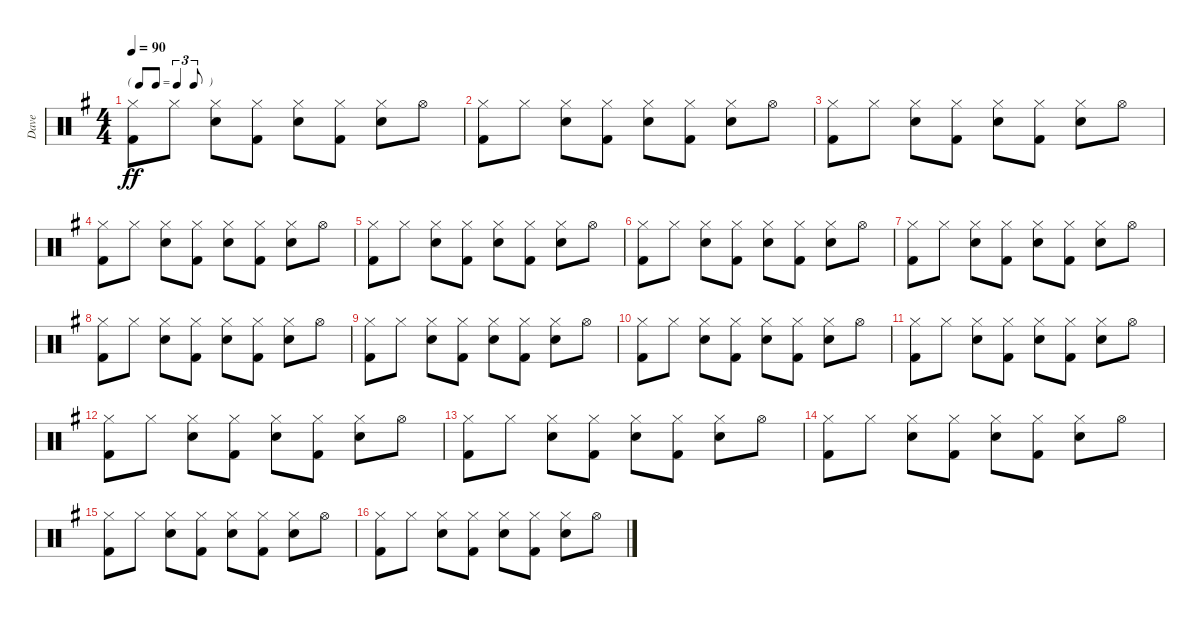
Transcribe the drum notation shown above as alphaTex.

\track ("Dave" "Dave") {instrument percussion}
\staff {score}
\articulation defaults
\ts (4 4)
\tf triplet8th
\tempo 90
\clef neutral
\ks g
("Hi-Hat (closed)" "Kick (hit) 2").8{dy ff} "Hi-Hat (closed)".8 ("Hi-Hat (closed)" "Snare (hit) 2").8 ("Hi-Hat (closed)" "Kick (hit) 2").8 ("Hi-Hat (closed)" "Snare (hit) 2").8 ("Hi-Hat (closed)" "Kick (hit) 2").8 ("Hi-Hat (closed)" "Snare (hit) 2").8 "Hi-Hat (open)".8 |
("Hi-Hat (closed)" "Kick (hit) 2").8 "Hi-Hat (closed)".8 ("Hi-Hat (closed)" "Snare (hit) 2").8 ("Hi-Hat (closed)" "Kick (hit) 2").8 ("Hi-Hat (closed)" "Snare (hit) 2").8 ("Hi-Hat (closed)" "Kick (hit) 2").8 ("Hi-Hat (closed)" "Snare (hit) 2").8 "Hi-Hat (open)".8 |
("Hi-Hat (closed)" "Kick (hit) 2").8 "Hi-Hat (closed)".8 ("Hi-Hat (closed)" "Snare (hit) 2").8 ("Hi-Hat (closed)" "Kick (hit) 2").8 ("Hi-Hat (closed)" "Snare (hit) 2").8 ("Hi-Hat (closed)" "Kick (hit) 2").8 ("Hi-Hat (closed)" "Snare (hit) 2").8 "Hi-Hat (open)".8 |
("Hi-Hat (closed)" "Kick (hit) 2").8 "Hi-Hat (closed)".8 ("Hi-Hat (closed)" "Snare (hit) 2").8 ("Hi-Hat (closed)" "Kick (hit) 2").8 ("Hi-Hat (closed)" "Snare (hit) 2").8 ("Hi-Hat (closed)" "Kick (hit) 2").8 ("Hi-Hat (closed)" "Snare (hit) 2").8 "Hi-Hat (open)".8 |
("Hi-Hat (closed)" "Kick (hit) 2").8 "Hi-Hat (closed)".8 ("Hi-Hat (closed)" "Snare (hit) 2").8 ("Hi-Hat (closed)" "Kick (hit) 2").8 ("Hi-Hat (closed)" "Snare (hit) 2").8 ("Hi-Hat (closed)" "Kick (hit) 2").8 ("Hi-Hat (closed)" "Snare (hit) 2").8 "Hi-Hat (open)".8 |
("Hi-Hat (closed)" "Kick (hit) 2").8 "Hi-Hat (closed)".8 ("Hi-Hat (closed)" "Snare (hit) 2").8 ("Hi-Hat (closed)" "Kick (hit) 2").8 ("Hi-Hat (closed)" "Snare (hit) 2").8 ("Hi-Hat (closed)" "Kick (hit) 2").8 ("Hi-Hat (closed)" "Snare (hit) 2").8 "Hi-Hat (open)".8 |
("Hi-Hat (closed)" "Kick (hit) 2").8 "Hi-Hat (closed)".8 ("Hi-Hat (closed)" "Snare (hit) 2").8 ("Hi-Hat (closed)" "Kick (hit) 2").8 ("Hi-Hat (closed)" "Snare (hit) 2").8 ("Hi-Hat (closed)" "Kick (hit) 2").8 ("Hi-Hat (closed)" "Snare (hit) 2").8 "Hi-Hat (open)".8 |
("Hi-Hat (closed)" "Kick (hit) 2").8 "Hi-Hat (closed)".8 ("Hi-Hat (closed)" "Snare (hit) 2").8 ("Hi-Hat (closed)" "Kick (hit) 2").8 ("Hi-Hat (closed)" "Snare (hit) 2").8 ("Hi-Hat (closed)" "Kick (hit) 2").8 ("Hi-Hat (closed)" "Snare (hit) 2").8 "Hi-Hat (open)".8 |
("Hi-Hat (closed)" "Kick (hit) 2").8 "Hi-Hat (closed)".8 ("Hi-Hat (closed)" "Snare (hit) 2").8 ("Hi-Hat (closed)" "Kick (hit) 2").8 ("Hi-Hat (closed)" "Snare (hit) 2").8 ("Hi-Hat (closed)" "Kick (hit) 2").8 ("Hi-Hat (closed)" "Snare (hit) 2").8 "Hi-Hat (open)".8 |
("Hi-Hat (closed)" "Kick (hit) 2").8 "Hi-Hat (closed)".8 ("Hi-Hat (closed)" "Snare (hit) 2").8 ("Hi-Hat (closed)" "Kick (hit) 2").8 ("Hi-Hat (closed)" "Snare (hit) 2").8 ("Hi-Hat (closed)" "Kick (hit) 2").8 ("Hi-Hat (closed)" "Snare (hit) 2").8 "Hi-Hat (open)".8 |
("Hi-Hat (closed)" "Kick (hit) 2").8 "Hi-Hat (closed)".8 ("Hi-Hat (closed)" "Snare (hit) 2").8 ("Hi-Hat (closed)" "Kick (hit) 2").8 ("Hi-Hat (closed)" "Snare (hit) 2").8 ("Hi-Hat (closed)" "Kick (hit) 2").8 ("Hi-Hat (closed)" "Snare (hit) 2").8 "Hi-Hat (open)".8 |
("Hi-Hat (closed)" "Kick (hit) 2").8 "Hi-Hat (closed)".8 ("Hi-Hat (closed)" "Snare (hit) 2").8 ("Hi-Hat (closed)" "Kick (hit) 2").8 ("Hi-Hat (closed)" "Snare (hit) 2").8 ("Hi-Hat (closed)" "Kick (hit) 2").8 ("Hi-Hat (closed)" "Snare (hit) 2").8 "Hi-Hat (open)".8 |
("Hi-Hat (closed)" "Kick (hit) 2").8 "Hi-Hat (closed)".8 ("Hi-Hat (closed)" "Snare (hit) 2").8 ("Hi-Hat (closed)" "Kick (hit) 2").8 ("Hi-Hat (closed)" "Snare (hit) 2").8 ("Hi-Hat (closed)" "Kick (hit) 2").8 ("Hi-Hat (closed)" "Snare (hit) 2").8 "Hi-Hat (open)".8 |
("Hi-Hat (closed)" "Kick (hit) 2").8 "Hi-Hat (closed)".8 ("Hi-Hat (closed)" "Snare (hit) 2").8 ("Hi-Hat (closed)" "Kick (hit) 2").8 ("Hi-Hat (closed)" "Snare (hit) 2").8 ("Hi-Hat (closed)" "Kick (hit) 2").8 ("Hi-Hat (closed)" "Snare (hit) 2").8 "Hi-Hat (open)".8 |
("Hi-Hat (closed)" "Kick (hit) 2").8 "Hi-Hat (closed)".8 ("Hi-Hat (closed)" "Snare (hit) 2").8 ("Hi-Hat (closed)" "Kick (hit) 2").8 ("Hi-Hat (closed)" "Snare (hit) 2").8 ("Hi-Hat (closed)" "Kick (hit) 2").8 ("Hi-Hat (closed)" "Snare (hit) 2").8 "Hi-Hat (open)".8 |
("Hi-Hat (closed)" "Kick (hit) 2").8 "Hi-Hat (closed)".8 ("Hi-Hat (closed)" "Snare (hit) 2").8 ("Hi-Hat (closed)" "Kick (hit) 2").8 ("Hi-Hat (closed)" "Snare (hit) 2").8 ("Hi-Hat (closed)" "Kick (hit) 2").8 ("Hi-Hat (closed)" "Snare (hit) 2").8 "Hi-Hat (open)".8
